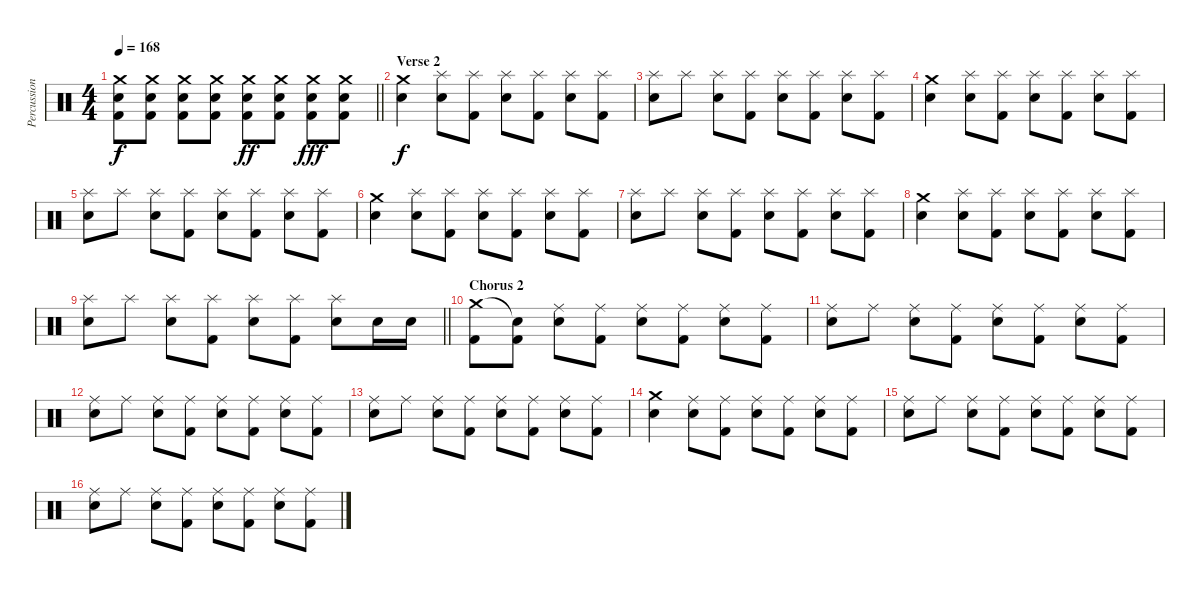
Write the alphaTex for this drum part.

\track ("Percussion" "Percussion") {instrument percussion}
\staff {score}
\articulation defaults
\ts (4 4)
\tempo 168
\clef neutral
\barLineRight lightlight
\ks c
("Crash medium (hit)" "Snare (hit) 2" "Kick (hit) 2").8{dy f} ("Crash medium (hit)" "Snare (hit) 2" "Kick (hit) 2").8 ("Crash medium (hit)" "Snare (hit) 2" "Kick (hit) 2").8 ("Crash medium (hit)" "Snare (hit) 2" "Kick (hit) 2").8 ("Crash medium (hit)" "Snare (hit) 2" "Kick (hit) 2").8{dy ff} ("Crash medium (hit)" "Snare (hit) 2" "Kick (hit) 2").8 ("Crash medium (hit)" "Snare (hit) 2" "Kick (hit) 2").8{dy fff} ("Crash medium (hit)" "Snare (hit) 2" "Kick (hit) 2").8 |
\section ("" "Verse 2")
("Crash medium (hit)" "Snare (hit) 2").4{dy f} ("Splash (hit)" "Snare (hit) 2").8 ("Splash (hit)" "Kick (hit) 2").8 ("Splash (hit)" "Snare (hit) 2").8 ("Splash (hit)" "Kick (hit) 2").8 ("Splash (hit)" "Snare (hit) 2").8 ("Splash (hit)" "Kick (hit) 2").8 |
("Splash (hit)" "Snare (hit) 2").8 "Splash (hit)".8 ("Splash (hit)" "Snare (hit) 2").8 ("Splash (hit)" "Kick (hit) 2").8 ("Splash (hit)" "Snare (hit) 2").8 ("Splash (hit)" "Kick (hit) 2").8 ("Splash (hit)" "Snare (hit) 2").8 ("Splash (hit)" "Kick (hit) 2").8 |
("Crash medium (hit)" "Snare (hit) 2").4 ("Splash (hit)" "Snare (hit) 2").8 ("Splash (hit)" "Kick (hit) 2").8 ("Splash (hit)" "Snare (hit) 2").8 ("Splash (hit)" "Kick (hit) 2").8 ("Splash (hit)" "Snare (hit) 2").8 ("Splash (hit)" "Kick (hit) 2").8 |
("Splash (hit)" "Snare (hit) 2").8 "Splash (hit)".8 ("Splash (hit)" "Snare (hit) 2").8 ("Splash (hit)" "Kick (hit) 2").8 ("Splash (hit)" "Snare (hit) 2").8 ("Splash (hit)" "Kick (hit) 2").8 ("Splash (hit)" "Snare (hit) 2").8 ("Splash (hit)" "Kick (hit) 2").8 |
("Crash medium (hit)" "Snare (hit) 2").4 ("Splash (hit)" "Snare (hit) 2").8 ("Splash (hit)" "Kick (hit) 2").8 ("Splash (hit)" "Snare (hit) 2").8 ("Splash (hit)" "Kick (hit) 2").8 ("Splash (hit)" "Snare (hit) 2").8 ("Splash (hit)" "Kick (hit) 2").8 |
("Splash (hit)" "Snare (hit) 2").8 "Splash (hit)".8 ("Splash (hit)" "Snare (hit) 2").8 ("Splash (hit)" "Kick (hit) 2").8 ("Splash (hit)" "Snare (hit) 2").8 ("Splash (hit)" "Kick (hit) 2").8 ("Splash (hit)" "Snare (hit) 2").8 ("Splash (hit)" "Kick (hit) 2").8 |
("Crash medium (hit)" "Snare (hit) 2").4 ("Splash (hit)" "Snare (hit) 2").8 ("Splash (hit)" "Kick (hit) 2").8 ("Splash (hit)" "Snare (hit) 2").8 ("Splash (hit)" "Kick (hit) 2").8 ("Splash (hit)" "Snare (hit) 2").8 ("Splash (hit)" "Kick (hit) 2").8 |
\barLineRight lightlight
("Splash (hit)" "Snare (hit) 2").8 "Splash (hit)".8 ("Splash (hit)" "Snare (hit) 2").8 ("Splash (hit)" "Kick (hit) 2").8 ("Splash (hit)" "Snare (hit) 2").8 ("Splash (hit)" "Kick (hit) 2").8 ("Splash (hit)" "Snare (hit) 2").8 "Snare (hit) 2".16 "Snare (hit) 2".16 |
\section ("" "Chorus 2")
("Crash medium (hit)" "Kick (hit) 2").8 ("Snare (hit)"{t} "Kick (hit) 2").8 ("Ride (middle)" "Snare (hit) 2").8 ("Ride (middle)" "Kick (hit) 2").8 ("Ride (middle)" "Snare (hit) 2").8 ("Ride (middle)" "Kick (hit) 2").8 ("Ride (middle)" "Snare (hit) 2").8 ("Ride (middle)" "Kick (hit) 2").8 |
("Ride (middle)" "Snare (hit) 2").8 "Ride (middle)".8 ("Ride (middle)" "Snare (hit) 2").8 ("Ride (middle)" "Kick (hit) 2").8 ("Ride (middle)" "Snare (hit) 2").8 ("Ride (middle)" "Kick (hit) 2").8 ("Ride (middle)" "Snare (hit) 2").8 ("Ride (middle)" "Kick (hit) 2").8 |
("Ride (middle)" "Snare (hit) 2").8 "Ride (middle)".8 ("Ride (middle)" "Snare (hit) 2").8 ("Ride (middle)" "Kick (hit) 2").8 ("Ride (middle)" "Snare (hit) 2").8 ("Ride (middle)" "Kick (hit) 2").8 ("Ride (middle)" "Snare (hit) 2").8 ("Ride (middle)" "Kick (hit) 2").8 |
("Ride (middle)" "Snare (hit) 2").8 "Ride (middle)".8 ("Ride (middle)" "Snare (hit) 2").8 ("Ride (middle)" "Kick (hit) 2").8 ("Ride (middle)" "Snare (hit) 2").8 ("Ride (middle)" "Kick (hit) 2").8 ("Ride (middle)" "Snare (hit) 2").8 ("Ride (middle)" "Kick (hit) 2").8 |
("Crash medium (hit)" "Snare (hit) 2").4 ("Ride (middle)" "Snare (hit) 2").8 ("Ride (middle)" "Kick (hit) 2").8 ("Ride (middle)" "Snare (hit) 2").8 ("Ride (middle)" "Kick (hit) 2").8 ("Ride (middle)" "Snare (hit) 2").8 ("Ride (middle)" "Kick (hit) 2").8 |
("Ride (middle)" "Snare (hit) 2").8 "Ride (middle)".8 ("Ride (middle)" "Snare (hit) 2").8 ("Ride (middle)" "Kick (hit) 2").8 ("Ride (middle)" "Snare (hit) 2").8 ("Ride (middle)" "Kick (hit) 2").8 ("Ride (middle)" "Snare (hit) 2").8 ("Ride (middle)" "Kick (hit) 2").8 |
("Ride (middle)" "Snare (hit) 2").8 "Ride (middle)".8 ("Ride (middle)" "Snare (hit) 2").8 ("Ride (middle)" "Kick (hit) 2").8 ("Ride (middle)" "Snare (hit) 2").8 ("Ride (middle)" "Kick (hit) 2").8 ("Ride (middle)" "Snare (hit) 2").8 ("Ride (middle)" "Kick (hit) 2").8
